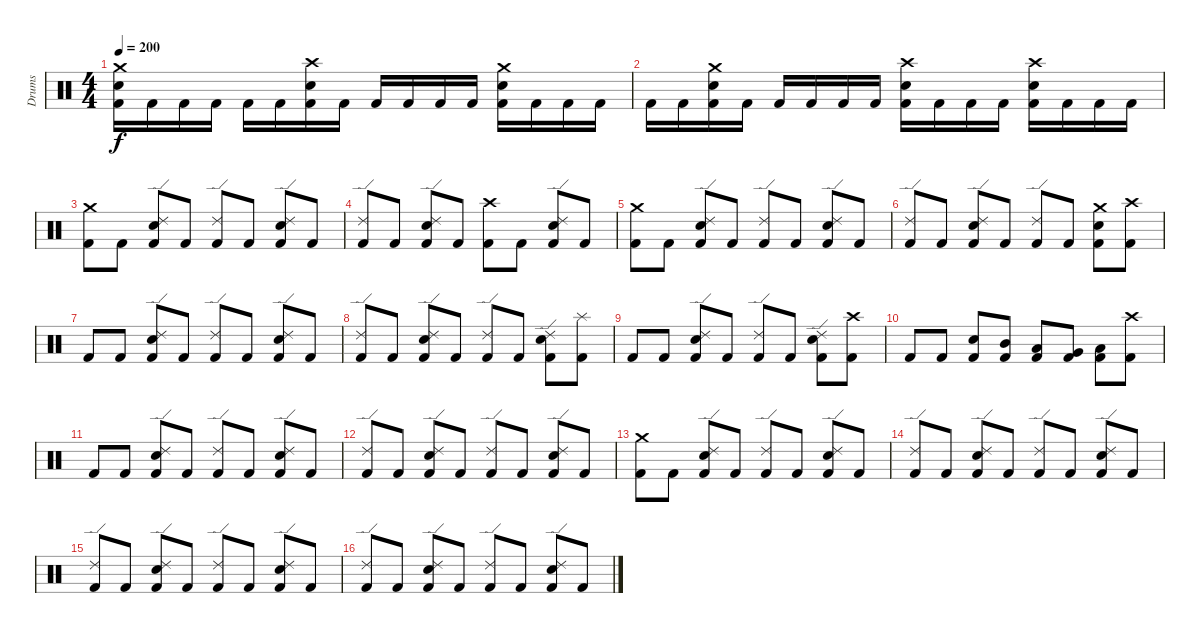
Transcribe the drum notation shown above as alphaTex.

\track ("Drums" "Drums") {instrument percussion}
\staff {score}
\articulation defaults
\ts (4 4)
\tempo 200
\clef neutral
\ks c
("Kick (hit) 2" "Electric Snare (hit)" "Crash medium (hit)").16{dy f} "Kick (hit) 2".16 "Kick (hit) 2".16 "Kick (hit) 2".16 "Kick (hit) 2".16 "Kick (hit) 2".16 ("Kick (hit) 2" "Electric Snare (hit)" "Crash high (hit)").16 "Kick (hit) 2".16 "Kick (hit) 2".16 "Kick (hit) 2".16 "Kick (hit) 2".16 "Kick (hit) 2".16 ("Kick (hit) 2" "Electric Snare (hit)" "Crash medium (hit)").16 "Kick (hit) 2".16 "Kick (hit) 2".16 "Kick (hit) 2".16 |
"Kick (hit) 2".16 "Kick (hit) 2".16 ("Kick (hit) 2" "Electric Snare (hit)" "Crash medium (hit)").16 "Kick (hit) 2".16 "Kick (hit) 2".16 "Kick (hit) 2".16 "Kick (hit) 2".16 "Kick (hit) 2".16 ("Kick (hit) 2" "Electric Snare (hit)" "Crash high (hit)").16 "Kick (hit) 2".16 "Kick (hit) 2".16 "Kick (hit) 2".16 ("Kick (hit) 2" "Electric Snare (hit)" "Crash high (hit)").16 "Kick (hit) 2".16 "Kick (hit) 2".16 "Kick (hit) 2".16 |
\section ("" "")
("Kick (hit) 2" "Crash medium (hit)").8 "Kick (hit) 2".8 ("Kick (hit) 2" "Electric Snare (hit)" "Ride (edge) 2").8 "Kick (hit) 2".8 ("Kick (hit) 2" "Ride (edge) 2").8 "Kick (hit) 2".8 ("Kick (hit) 2" "Electric Snare (hit)" "Ride (edge) 2").8 "Kick (hit) 2".8 |
("Kick (hit) 2" "Ride (edge) 2").8 "Kick (hit) 2".8 ("Kick (hit) 2" "Electric Snare (hit)" "Ride (edge) 2").8 "Kick (hit) 2".8 ("Kick (hit) 2" "Crash high (hit)").8 "Kick (hit) 2".8 ("Kick (hit) 2" "Electric Snare (hit)" "Ride (edge) 2").8 "Kick (hit) 2".8 |
("Kick (hit) 2" "Crash medium (hit)").8 "Kick (hit) 2".8 ("Kick (hit) 2" "Electric Snare (hit)" "Ride (edge) 2").8 "Kick (hit) 2".8 ("Kick (hit) 2" "Ride (edge) 2").8 "Kick (hit) 2".8 ("Kick (hit) 2" "Electric Snare (hit)" "Ride (edge) 2").8 "Kick (hit) 2".8 |
("Kick (hit) 2" "Ride (edge) 2").8 "Kick (hit) 2".8 ("Kick (hit) 2" "Electric Snare (hit)" "Ride (edge) 2").8 "Kick (hit) 2".8 ("Kick (hit) 2" "Ride (edge) 2").8 "Kick (hit) 2".8 ("Kick (hit) 2" "Electric Snare (hit)" "Crash medium (hit)").8 ("Kick (hit) 2" "Crash high (hit)").8 |
"Kick (hit) 2".8 "Kick (hit) 2".8 ("Kick (hit) 2" "Electric Snare (hit)" "Ride (edge) 2").8 "Kick (hit) 2".8 ("Kick (hit) 2" "Ride (edge) 2").8 "Kick (hit) 2".8 ("Kick (hit) 2" "Electric Snare (hit)" "Ride (edge) 2").8 "Kick (hit) 2".8 |
("Kick (hit) 2" "Ride (edge) 2").8 "Kick (hit) 2".8 ("Kick (hit) 2" "Electric Snare (hit)" "Ride (edge) 2").8 "Kick (hit) 2".8 ("Kick (hit) 2" "Ride (edge) 2").8 "Kick (hit) 2".8 ("Kick (hit) 2" "Electric Snare (hit)" "Ride (edge) 2").8 ("Kick (hit) 2" "Splash (hit)").8 |
"Kick (hit) 2".8 "Kick (hit) 2".8 ("Kick (hit) 2" "Electric Snare (hit)" "Ride (edge) 2").8 "Kick (hit) 2".8 ("Kick (hit) 2" "Ride (edge) 2").8 "Kick (hit) 2".8 ("Kick (hit) 2" "Electric Snare (hit)" "Ride (edge) 2").8 ("Kick (hit) 2" "Crash high (hit)").8 |
"Kick (hit) 2".8 "Kick (hit) 2".8 ("Kick (hit) 2" "Electric Snare (hit)").8 ("Kick (hit) 2" "Mid Tom (hit)").8 ("Kick (hit) 2" "Low Tom (hit)").8 ("Kick (hit) 2" "Very Low Tom (hit)").8 ("Kick (hit) 2" "Low Floor Tom (hit)").8 ("Kick (hit) 2" "Crash high (hit)").8 |
\section ("" "")
"Kick (hit) 2".8 "Kick (hit) 2".8 ("Kick (hit) 2" "Electric Snare (hit)" "Ride (edge) 2").8 "Kick (hit) 2".8 ("Kick (hit) 2" "Ride (edge) 2").8 "Kick (hit) 2".8 ("Kick (hit) 2" "Electric Snare (hit)" "Ride (edge) 2").8 "Kick (hit) 2".8 |
("Kick (hit) 2" "Ride (edge) 2").8 "Kick (hit) 2".8 ("Kick (hit) 2" "Electric Snare (hit)" "Ride (edge) 2").8 "Kick (hit) 2".8 ("Kick (hit) 2" "Ride (edge) 2").8 "Kick (hit) 2".8 ("Kick (hit) 2" "Electric Snare (hit)" "Ride (edge) 2").8 "Kick (hit) 2".8 |
("Kick (hit) 2" "Crash medium (hit)").8 "Kick (hit) 2".8 ("Kick (hit) 2" "Electric Snare (hit)" "Ride (edge) 2").8 "Kick (hit) 2".8 ("Kick (hit) 2" "Ride (edge) 2").8 "Kick (hit) 2".8 ("Kick (hit) 2" "Electric Snare (hit)" "Ride (edge) 2").8 "Kick (hit) 2".8 |
("Kick (hit) 2" "Ride (edge) 2").8 "Kick (hit) 2".8 ("Kick (hit) 2" "Electric Snare (hit)" "Ride (edge) 2").8 "Kick (hit) 2".8 ("Kick (hit) 2" "Ride (edge) 2").8 "Kick (hit) 2".8 ("Kick (hit) 2" "Electric Snare (hit)" "Ride (edge) 2").8 "Kick (hit) 2".8 |
("Kick (hit) 2" "Ride (edge) 2").8 "Kick (hit) 2".8 ("Kick (hit) 2" "Electric Snare (hit)" "Ride (edge) 2").8 "Kick (hit) 2".8 ("Kick (hit) 2" "Ride (edge) 2").8 "Kick (hit) 2".8 ("Kick (hit) 2" "Electric Snare (hit)" "Ride (edge) 2").8 "Kick (hit) 2".8 |
("Kick (hit) 2" "Ride (edge) 2").8 "Kick (hit) 2".8 ("Kick (hit) 2" "Electric Snare (hit)" "Ride (edge) 2").8 "Kick (hit) 2".8 ("Kick (hit) 2" "Ride (edge) 2").8 "Kick (hit) 2".8 ("Kick (hit) 2" "Electric Snare (hit)" "Ride (edge) 2").8 "Kick (hit) 2".8
